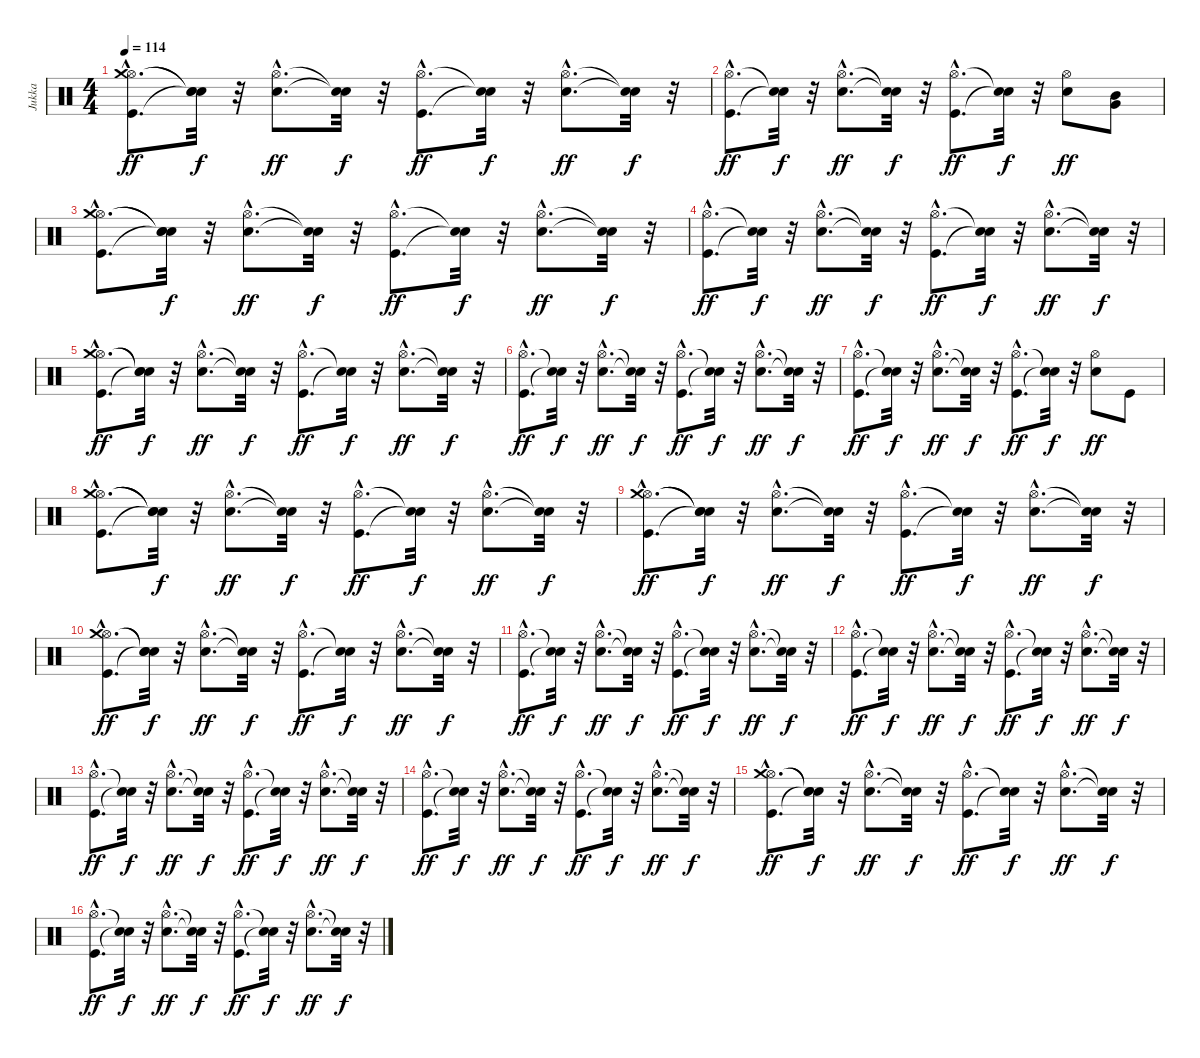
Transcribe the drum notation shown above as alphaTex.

\track ("Jukka" "Jukka") {instrument percussion}
\staff {score}
\articulation defaults
\ts (4 4)
\tempo 114
\clef neutral
\ks c
("Kick (hit)"{hac} "Hi-Hat (open)"{hac} "Crash medium (hit)"{hac}).8{d dy ff} ("Snare (hit)"{t} "Snare (hit)"{t} "Snare (hit)"{t}).32{dy f} r.32 ("Electric Snare (hit)"{hac} "Hi-Hat (open)"{hac}).8{d dy ff} ("Snare (hit)"{t} "Snare (hit)"{t}).32{dy f} r.32 ("Kick (hit)"{hac} "Hi-Hat (open)"{hac}).8{d dy ff} ("Snare (hit)"{t} "Snare (hit)"{t}).32{dy f} r.32 ("Electric Snare (hit)"{hac} "Hi-Hat (open)"{hac}).8{d dy ff} ("Snare (hit)"{t} "Snare (hit)"{t}).32{dy f} r.32 |
("Kick (hit)"{hac} "Hi-Hat (open)"{hac}).8{d dy ff} ("Snare (hit)"{t} "Snare (hit)"{t}).32{dy f} r.32 ("Electric Snare (hit)"{hac} "Hi-Hat (open)"{hac}).8{d dy ff} ("Snare (hit)"{t} "Snare (hit)"{t}).32{dy f} r.32 ("Kick (hit)"{hac} "Hi-Hat (open)"{hac}).8{d dy ff} ("Snare (hit)"{t} "Snare (hit)"{t}).32{dy f} r.32 ("Electric Snare (hit)" "Hi-Hat (open)").8{dy ff} ("Very Low Tom (hit)" "Mid Tom (hit)").8 |
("Kick (hit)"{hac} "Hi-Hat (open)"{hac} "Crash medium (hit)"{hac}).8{d} ("Snare (hit)"{t} "Snare (hit)"{t} "Snare (hit)"{t}).32{dy f} r.32 ("Electric Snare (hit)"{hac} "Hi-Hat (open)"{hac}).8{d dy ff} ("Snare (hit)"{t} "Snare (hit)"{t}).32{dy f} r.32 ("Kick (hit)"{hac} "Hi-Hat (open)"{hac}).8{d dy ff} ("Snare (hit)"{t} "Snare (hit)"{t}).32{dy f} r.32 ("Electric Snare (hit)"{hac} "Hi-Hat (open)"{hac}).8{d dy ff} ("Snare (hit)"{t} "Snare (hit)"{t}).32{dy f} r.32 |
("Kick (hit)"{hac} "Hi-Hat (open)"{hac}).8{d dy ff} ("Snare (hit)"{t} "Snare (hit)"{t}).32{dy f} r.32 ("Electric Snare (hit)"{hac} "Hi-Hat (open)"{hac}).8{d dy ff} ("Snare (hit)"{t} "Snare (hit)"{t}).32{dy f} r.32 ("Kick (hit)"{hac} "Hi-Hat (open)"{hac}).8{d dy ff} ("Snare (hit)"{t} "Snare (hit)"{t}).32{dy f} r.32 ("Electric Snare (hit)"{hac} "Hi-Hat (open)"{hac}).8{d dy ff} ("Snare (hit)"{t} "Snare (hit)"{t}).32{dy f} r.32 |
("Kick (hit)"{hac} "Hi-Hat (open)"{hac} "Crash medium (hit)"{hac}).8{d dy ff} ("Snare (hit)"{t} "Snare (hit)"{t} "Snare (hit)"{t}).32{dy f} r.32 ("Electric Snare (hit)"{hac} "Hi-Hat (open)"{hac}).8{d dy ff} ("Snare (hit)"{t} "Snare (hit)"{t}).32{dy f} r.32 ("Kick (hit)"{hac} "Hi-Hat (open)"{hac}).8{d dy ff} ("Snare (hit)"{t} "Snare (hit)"{t}).32{dy f} r.32 ("Electric Snare (hit)"{hac} "Hi-Hat (open)"{hac}).8{d dy ff} ("Snare (hit)"{t} "Snare (hit)"{t}).32{dy f} r.32 |
("Kick (hit)"{hac} "Hi-Hat (open)"{hac}).8{d dy ff} ("Snare (hit)"{t} "Snare (hit)"{t}).32{dy f} r.32 ("Electric Snare (hit)"{hac} "Hi-Hat (open)"{hac}).8{d dy ff} ("Snare (hit)"{t} "Snare (hit)"{t}).32{dy f} r.32 ("Kick (hit)"{hac} "Hi-Hat (open)"{hac}).8{d dy ff} ("Snare (hit)"{t} "Snare (hit)"{t}).32{dy f} r.32 ("Electric Snare (hit)"{hac} "Hi-Hat (open)"{hac}).8{d dy ff} ("Snare (hit)"{t} "Snare (hit)"{t}).32{dy f} r.32 |
("Kick (hit)"{hac} "Hi-Hat (open)"{hac}).8{d dy ff} ("Snare (hit)"{t} "Snare (hit)"{t}).32{dy f} r.32 ("Electric Snare (hit)"{hac} "Hi-Hat (open)"{hac}).8{d dy ff} ("Snare (hit)"{t} "Snare (hit)"{t}).32{dy f} r.32 ("Kick (hit)"{hac} "Hi-Hat (open)"{hac}).8{d dy ff} ("Snare (hit)"{t} "Snare (hit)"{t}).32{dy f} r.32 ("Electric Snare (hit)" "Hi-Hat (open)").8{dy ff} "Kick (hit)".8 |
("Kick (hit)"{hac} "Hi-Hat (open)"{hac} "Crash medium (hit)"{hac}).8{d} ("Snare (hit)"{t} "Snare (hit)"{t} "Snare (hit)"{t}).32{dy f} r.32 ("Electric Snare (hit)"{hac} "Hi-Hat (open)"{hac}).8{d dy ff} ("Snare (hit)"{t} "Snare (hit)"{t}).32{dy f} r.32 ("Kick (hit)"{hac} "Hi-Hat (open)"{hac}).8{d dy ff} ("Snare (hit)"{t} "Snare (hit)"{t}).32{dy f} r.32 ("Electric Snare (hit)"{hac} "Hi-Hat (open)"{hac}).8{d dy ff} ("Snare (hit)"{t} "Snare (hit)"{t}).32{dy f} r.32 |
("Kick (hit)"{hac} "Hi-Hat (open)"{hac} "Crash medium (hit)"{hac}).8{d dy ff} ("Snare (hit)"{t} "Snare (hit)"{t} "Snare (hit)"{t}).32{dy f} r.32 ("Electric Snare (hit)"{hac} "Hi-Hat (open)"{hac}).8{d dy ff} ("Snare (hit)"{t} "Snare (hit)"{t}).32{dy f} r.32 ("Kick (hit)"{hac} "Hi-Hat (open)"{hac}).8{d dy ff} ("Snare (hit)"{t} "Snare (hit)"{t}).32{dy f} r.32 ("Electric Snare (hit)"{hac} "Hi-Hat (open)"{hac}).8{d dy ff} ("Snare (hit)"{t} "Snare (hit)"{t}).32{dy f} r.32 |
("Kick (hit)"{hac} "Hi-Hat (open)"{hac} "Crash medium (hit)"{hac}).8{d dy ff} ("Snare (hit)"{t} "Snare (hit)"{t} "Snare (hit)"{t}).32{dy f} r.32 ("Electric Snare (hit)"{hac} "Hi-Hat (open)"{hac}).8{d dy ff} ("Snare (hit)"{t} "Snare (hit)"{t}).32{dy f} r.32 ("Kick (hit)"{hac} "Hi-Hat (open)"{hac}).8{d dy ff} ("Snare (hit)"{t} "Snare (hit)"{t}).32{dy f} r.32 ("Electric Snare (hit)"{hac} "Hi-Hat (open)"{hac}).8{d dy ff} ("Snare (hit)"{t} "Snare (hit)"{t}).32{dy f} r.32 |
("Kick (hit)"{hac} "Hi-Hat (open)"{hac}).8{d dy ff} ("Snare (hit)"{t} "Snare (hit)"{t}).32{dy f} r.32 ("Electric Snare (hit)"{hac} "Hi-Hat (open)"{hac}).8{d dy ff} ("Snare (hit)"{t} "Snare (hit)"{t}).32{dy f} r.32 ("Kick (hit)"{hac} "Hi-Hat (open)"{hac}).8{d dy ff} ("Snare (hit)"{t} "Snare (hit)"{t}).32{dy f} r.32 ("Electric Snare (hit)"{hac} "Hi-Hat (open)"{hac}).8{d dy ff} ("Snare (hit)"{t} "Snare (hit)"{t}).32{dy f} r.32 |
("Kick (hit)"{hac} "Hi-Hat (open)"{hac}).8{d dy ff} ("Snare (hit)"{t} "Snare (hit)"{t}).32{dy f} r.32 ("Electric Snare (hit)"{hac} "Hi-Hat (open)"{hac}).8{d dy ff} ("Snare (hit)"{t} "Snare (hit)"{t}).32{dy f} r.32 ("Kick (hit)"{hac} "Hi-Hat (open)"{hac}).8{d dy ff} ("Snare (hit)"{t} "Snare (hit)"{t}).32{dy f} r.32 ("Electric Snare (hit)"{hac} "Hi-Hat (open)"{hac}).8{d dy ff} ("Snare (hit)"{t} "Snare (hit)"{t}).32{dy f} r.32 |
("Kick (hit)"{hac} "Hi-Hat (open)"{hac}).8{d dy ff} ("Snare (hit)"{t} "Snare (hit)"{t}).32{dy f} r.32 ("Electric Snare (hit)"{hac} "Hi-Hat (open)"{hac}).8{d dy ff} ("Snare (hit)"{t} "Snare (hit)"{t}).32{dy f} r.32 ("Kick (hit)"{hac} "Hi-Hat (open)"{hac}).8{d dy ff} ("Snare (hit)"{t} "Snare (hit)"{t}).32{dy f} r.32 ("Electric Snare (hit)"{hac} "Hi-Hat (open)"{hac}).8{d dy ff} ("Snare (hit)"{t} "Snare (hit)"{t}).32{dy f} r.32 |
("Kick (hit)"{hac} "Hi-Hat (open)"{hac}).8{d dy ff} ("Snare (hit)"{t} "Snare (hit)"{t}).32{dy f} r.32 ("Electric Snare (hit)"{hac} "Hi-Hat (open)"{hac}).8{d dy ff} ("Snare (hit)"{t} "Snare (hit)"{t}).32{dy f} r.32 ("Kick (hit)"{hac} "Hi-Hat (open)"{hac}).8{d dy ff} ("Snare (hit)"{t} "Snare (hit)"{t}).32{dy f} r.32 ("Electric Snare (hit)"{hac} "Hi-Hat (open)"{hac}).8{d dy ff} ("Snare (hit)"{t} "Snare (hit)"{t}).32{dy f} r.32 |
("Kick (hit)"{hac} "Hi-Hat (open)"{hac} "Crash medium (hit)"{hac}).8{d dy ff} ("Snare (hit)"{t} "Snare (hit)"{t} "Snare (hit)"{t}).32{dy f} r.32 ("Electric Snare (hit)"{hac} "Hi-Hat (open)"{hac}).8{d dy ff} ("Snare (hit)"{t} "Snare (hit)"{t}).32{dy f} r.32 ("Kick (hit)"{hac} "Hi-Hat (open)"{hac}).8{d dy ff} ("Snare (hit)"{t} "Snare (hit)"{t}).32{dy f} r.32 ("Electric Snare (hit)"{hac} "Hi-Hat (open)"{hac}).8{d dy ff} ("Snare (hit)"{t} "Snare (hit)"{t}).32{dy f} r.32 |
("Kick (hit)"{hac} "Hi-Hat (open)"{hac}).8{d dy ff} ("Snare (hit)"{t} "Snare (hit)"{t}).32{dy f} r.32 ("Electric Snare (hit)"{hac} "Hi-Hat (open)"{hac}).8{d dy ff} ("Snare (hit)"{t} "Snare (hit)"{t}).32{dy f} r.32 ("Kick (hit)"{hac} "Hi-Hat (open)"{hac}).8{d dy ff} ("Snare (hit)"{t} "Snare (hit)"{t}).32{dy f} r.32 ("Electric Snare (hit)"{hac} "Hi-Hat (open)"{hac}).8{d dy ff} ("Snare (hit)"{t} "Snare (hit)"{t}).32{dy f} r.32
